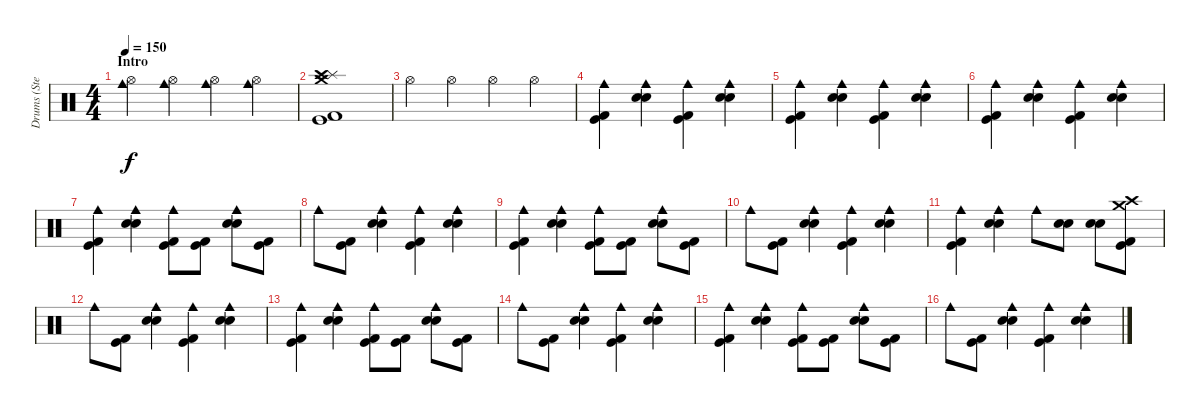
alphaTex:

\track ("Drums (Steven)" "Drums (Ste") {instrument percussion}
\staff {score}
\articulation defaults
\ts (4 4)
\section ("" "Intro")
\tempo 150
\clef neutral
\ks c
("Hi-Hat (open)" "Cowbell medium (hit)").4{dy f} ("Hi-Hat (open)" "Cowbell medium (hit)").4 ("Hi-Hat (open)" "Cowbell medium (hit)").4 ("Hi-Hat (open)" "Cowbell medium (hit)").4 |
("Kick (hit)" "Kick (hit) 2" "Splash (hit)" "Crash medium (hit)" "Crash high (hit)").1 |
"Hi-Hat (open)".4 "Hi-Hat (open)".4 "Hi-Hat (open)".4 "Hi-Hat (open)".4 |
("Kick (hit) 2" "Kick (hit)" "Cowbell medium (hit)").4 ("Electric Snare (hit)" "Snare (hit) 2" "Cowbell medium (hit)").4 ("Kick (hit) 2" "Kick (hit)" "Cowbell medium (hit)").4 ("Electric Snare (hit)" "Snare (hit) 2" "Cowbell medium (hit)").4 |
("Kick (hit) 2" "Kick (hit)" "Cowbell medium (hit)").4 ("Electric Snare (hit)" "Snare (hit) 2" "Cowbell medium (hit)").4 ("Kick (hit) 2" "Kick (hit)" "Cowbell medium (hit)").4 ("Electric Snare (hit)" "Snare (hit) 2" "Cowbell medium (hit)").4 |
("Kick (hit) 2" "Kick (hit)" "Cowbell medium (hit)").4 ("Electric Snare (hit)" "Snare (hit) 2" "Cowbell medium (hit)").4 ("Kick (hit) 2" "Kick (hit)" "Cowbell medium (hit)").4 ("Electric Snare (hit)" "Snare (hit) 2" "Cowbell medium (hit)").4 |
("Kick (hit) 2" "Kick (hit)" "Cowbell medium (hit)").4 ("Electric Snare (hit)" "Snare (hit) 2" "Cowbell medium (hit)").4 ("Kick (hit) 2" "Kick (hit)" "Cowbell medium (hit)").8 ("Kick (hit) 2" "Kick (hit)").8 ("Electric Snare (hit)" "Snare (hit) 2" "Cowbell medium (hit)").8 ("Kick (hit) 2" "Kick (hit)").8 |
"Cowbell medium (hit)".8 ("Kick (hit) 2" "Kick (hit)").8 ("Electric Snare (hit)" "Snare (hit) 2" "Cowbell medium (hit)").4 ("Kick (hit) 2" "Kick (hit)" "Cowbell medium (hit)").4 ("Electric Snare (hit)" "Snare (hit) 2" "Cowbell medium (hit)").4 |
("Kick (hit) 2" "Kick (hit)" "Cowbell medium (hit)").4 ("Electric Snare (hit)" "Snare (hit) 2" "Cowbell medium (hit)").4 ("Kick (hit) 2" "Kick (hit)" "Cowbell medium (hit)").8 ("Kick (hit) 2" "Kick (hit)").8 ("Electric Snare (hit)" "Snare (hit) 2" "Cowbell medium (hit)").8 ("Kick (hit) 2" "Kick (hit)").8 |
"Cowbell medium (hit)".8 ("Kick (hit) 2" "Kick (hit)").8 ("Electric Snare (hit)" "Snare (hit) 2" "Cowbell medium (hit)").4 ("Kick (hit) 2" "Kick (hit)" "Cowbell medium (hit)").4 ("Electric Snare (hit)" "Snare (hit) 2" "Cowbell medium (hit)").4 |
("Kick (hit) 2" "Kick (hit)" "Cowbell medium (hit)").4 ("Electric Snare (hit)" "Snare (hit) 2" "Cowbell medium (hit)").4 "Cowbell medium (hit)".8 ("Electric Snare (hit)" "Snare (hit) 2").8 ("Electric Snare (hit)" "Snare (hit) 2").8 ("Kick (hit) 2" "Kick (hit)" "Crash high (hit)" "Crash medium (hit)").8 |
"Cowbell medium (hit)".8 ("Kick (hit) 2" "Kick (hit)").8 ("Electric Snare (hit)" "Snare (hit) 2" "Cowbell medium (hit)").4 ("Kick (hit) 2" "Kick (hit)" "Cowbell medium (hit)").4 ("Electric Snare (hit)" "Snare (hit) 2" "Cowbell medium (hit)").4 |
("Kick (hit) 2" "Kick (hit)" "Cowbell medium (hit)").4 ("Electric Snare (hit)" "Snare (hit) 2" "Cowbell medium (hit)").4 ("Kick (hit) 2" "Kick (hit)" "Cowbell medium (hit)").8 ("Kick (hit) 2" "Kick (hit)").8 ("Electric Snare (hit)" "Snare (hit) 2" "Cowbell medium (hit)").8 ("Kick (hit) 2" "Kick (hit)").8 |
"Cowbell medium (hit)".8 ("Kick (hit) 2" "Kick (hit)").8 ("Electric Snare (hit)" "Snare (hit) 2" "Cowbell medium (hit)").4 ("Kick (hit) 2" "Kick (hit)" "Cowbell medium (hit)").4 ("Electric Snare (hit)" "Snare (hit) 2" "Cowbell medium (hit)").4 |
("Kick (hit) 2" "Kick (hit)" "Cowbell medium (hit)").4 ("Electric Snare (hit)" "Snare (hit) 2" "Cowbell medium (hit)").4 ("Kick (hit) 2" "Kick (hit)" "Cowbell medium (hit)").8 ("Kick (hit) 2" "Kick (hit)").8 ("Electric Snare (hit)" "Snare (hit) 2" "Cowbell medium (hit)").8 ("Kick (hit) 2" "Kick (hit)").8 |
"Cowbell medium (hit)".8 ("Kick (hit) 2" "Kick (hit)").8 ("Electric Snare (hit)" "Snare (hit) 2" "Cowbell medium (hit)").4 ("Kick (hit) 2" "Kick (hit)" "Cowbell medium (hit)").4 ("Electric Snare (hit)" "Snare (hit) 2" "Cowbell medium (hit)").4
